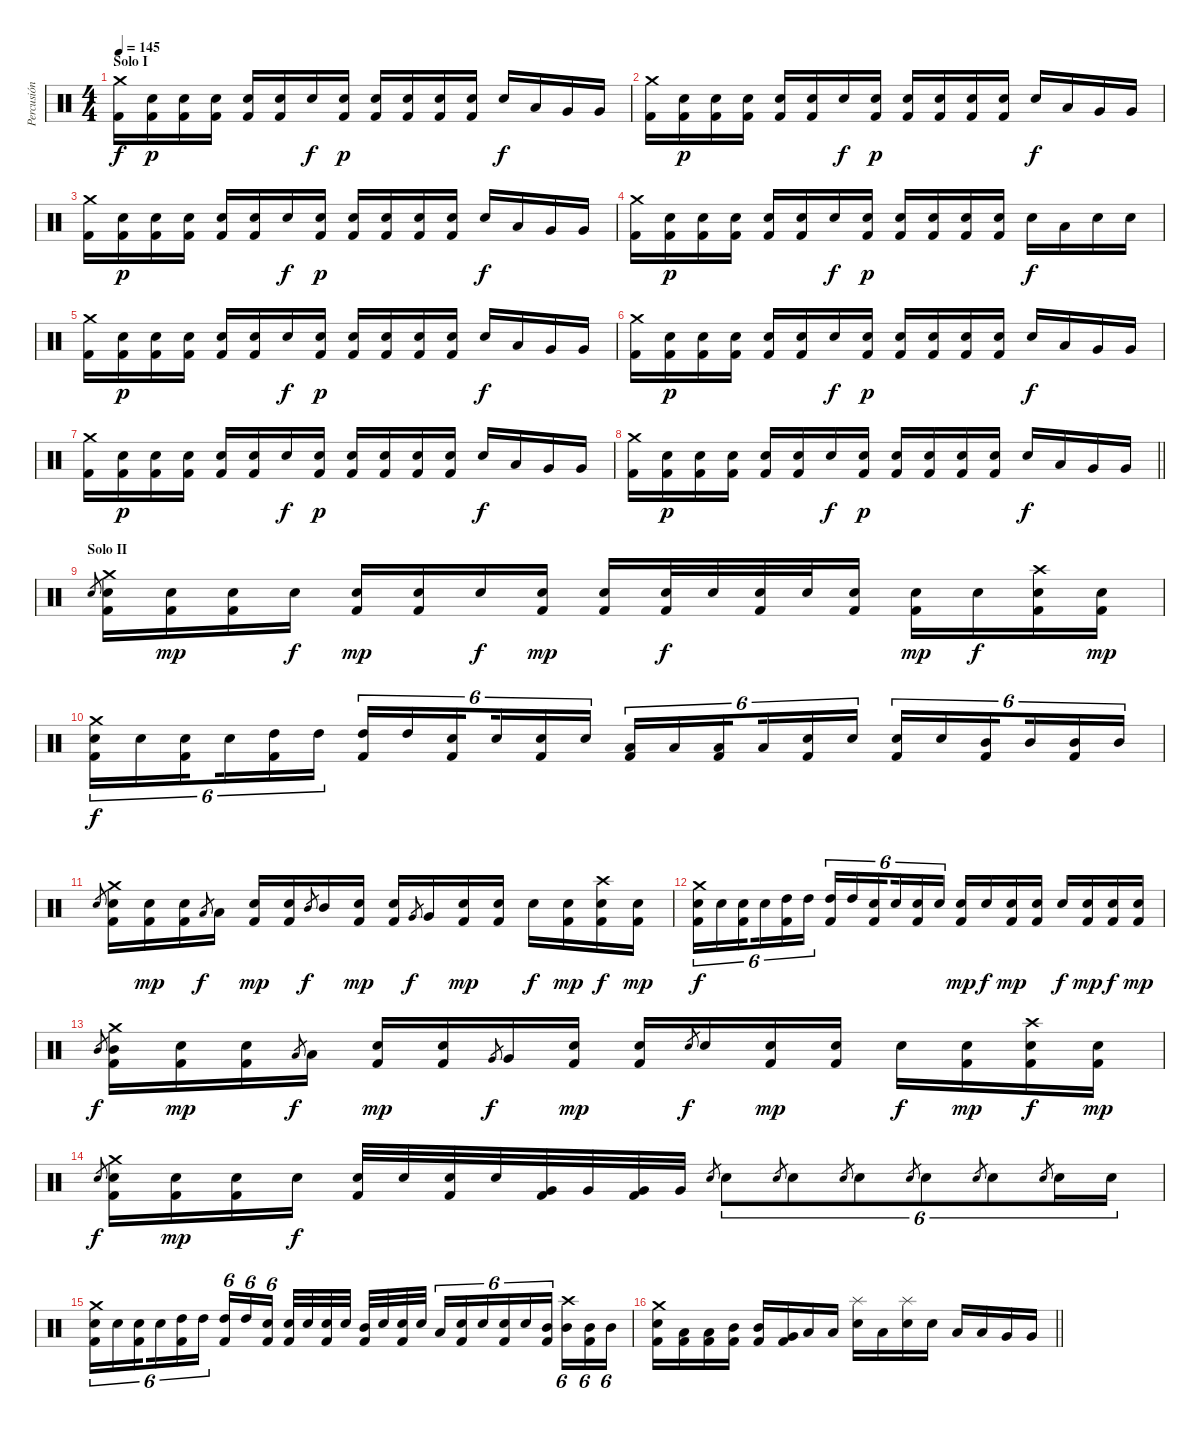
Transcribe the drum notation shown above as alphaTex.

\track ("Percusión" "Percusión") {instrument percussion}
\staff {score}
\articulation defaults
\ts (4 4)
\section ("" "Solo I")
\tempo 145
\clef neutral
\ks c
("Crash medium (hit)" "Kick (hit) 2").16{dy f} ("Electric Snare (hit)" "Kick (hit) 2").16{dy p} ("Electric Snare (hit)" "Kick (hit) 2").16 ("Electric Snare (hit)" "Kick (hit) 2").16 ("Electric Snare (hit)" "Kick (hit) 2").16 ("Electric Snare (hit)" "Kick (hit) 2").16 "Electric Snare (hit)".16{dy f} ("Electric Snare (hit)" "Kick (hit) 2").16{dy p} ("Electric Snare (hit)" "Kick (hit) 2").16 ("Electric Snare (hit)" "Kick (hit) 2").16 ("Electric Snare (hit)" "Kick (hit) 2").16 ("Electric Snare (hit)" "Kick (hit) 2").16 "Electric Snare (hit)".16{dy f} "Low Tom (hit)".16 "Very Low Tom (hit)".16 "Very Low Tom (hit)".16 |
("Crash medium (hit)" "Kick (hit) 2").16 ("Electric Snare (hit)" "Kick (hit) 2").16{dy p} ("Electric Snare (hit)" "Kick (hit) 2").16 ("Electric Snare (hit)" "Kick (hit) 2").16 ("Electric Snare (hit)" "Kick (hit) 2").16 ("Electric Snare (hit)" "Kick (hit) 2").16 "Electric Snare (hit)".16{dy f} ("Electric Snare (hit)" "Kick (hit) 2").16{dy p} ("Electric Snare (hit)" "Kick (hit) 2").16 ("Electric Snare (hit)" "Kick (hit) 2").16 ("Electric Snare (hit)" "Kick (hit) 2").16 ("Electric Snare (hit)" "Kick (hit) 2").16 "Electric Snare (hit)".16{dy f} "Low Tom (hit)".16 "Very Low Tom (hit)".16 "Very Low Tom (hit)".16 |
("Crash medium (hit)" "Kick (hit) 2").16 ("Electric Snare (hit)" "Kick (hit) 2").16{dy p} ("Electric Snare (hit)" "Kick (hit) 2").16 ("Electric Snare (hit)" "Kick (hit) 2").16 ("Electric Snare (hit)" "Kick (hit) 2").16 ("Electric Snare (hit)" "Kick (hit) 2").16 "Electric Snare (hit)".16{dy f} ("Electric Snare (hit)" "Kick (hit) 2").16{dy p} ("Electric Snare (hit)" "Kick (hit) 2").16 ("Electric Snare (hit)" "Kick (hit) 2").16 ("Electric Snare (hit)" "Kick (hit) 2").16 ("Electric Snare (hit)" "Kick (hit) 2").16 "Electric Snare (hit)".16{dy f} "Low Tom (hit)".16 "Very Low Tom (hit)".16 "Very Low Tom (hit)".16 |
("Crash medium (hit)" "Kick (hit) 2").16 ("Electric Snare (hit)" "Kick (hit) 2").16{dy p} ("Electric Snare (hit)" "Kick (hit) 2").16 ("Electric Snare (hit)" "Kick (hit) 2").16 ("Electric Snare (hit)" "Kick (hit) 2").16 ("Electric Snare (hit)" "Kick (hit) 2").16 "Electric Snare (hit)".16{dy f} ("Electric Snare (hit)" "Kick (hit) 2").16{dy p} ("Electric Snare (hit)" "Kick (hit) 2").16 ("Electric Snare (hit)" "Kick (hit) 2").16 ("Electric Snare (hit)" "Kick (hit) 2").16 ("Electric Snare (hit)" "Kick (hit) 2").16 "Electric Snare (hit)".16{dy f} "Low Tom (hit)".16 "Electric Snare (hit)".16 "Electric Snare (hit)".16 |
("Crash medium (hit)" "Kick (hit) 2").16 ("Electric Snare (hit)" "Kick (hit) 2").16{dy p} ("Electric Snare (hit)" "Kick (hit) 2").16 ("Electric Snare (hit)" "Kick (hit) 2").16 ("Electric Snare (hit)" "Kick (hit) 2").16 ("Electric Snare (hit)" "Kick (hit) 2").16 "Electric Snare (hit)".16{dy f} ("Electric Snare (hit)" "Kick (hit) 2").16{dy p} ("Electric Snare (hit)" "Kick (hit) 2").16 ("Electric Snare (hit)" "Kick (hit) 2").16 ("Electric Snare (hit)" "Kick (hit) 2").16 ("Electric Snare (hit)" "Kick (hit) 2").16 "Electric Snare (hit)".16{dy f} "Low Tom (hit)".16 "Very Low Tom (hit)".16 "Very Low Tom (hit)".16 |
("Crash medium (hit)" "Kick (hit) 2").16 ("Electric Snare (hit)" "Kick (hit) 2").16{dy p} ("Electric Snare (hit)" "Kick (hit) 2").16 ("Electric Snare (hit)" "Kick (hit) 2").16 ("Electric Snare (hit)" "Kick (hit) 2").16 ("Electric Snare (hit)" "Kick (hit) 2").16 "Electric Snare (hit)".16{dy f} ("Electric Snare (hit)" "Kick (hit) 2").16{dy p} ("Electric Snare (hit)" "Kick (hit) 2").16 ("Electric Snare (hit)" "Kick (hit) 2").16 ("Electric Snare (hit)" "Kick (hit) 2").16 ("Electric Snare (hit)" "Kick (hit) 2").16 "Electric Snare (hit)".16{dy f} "Low Tom (hit)".16 "Very Low Tom (hit)".16 "Very Low Tom (hit)".16 |
("Crash medium (hit)" "Kick (hit) 2").16 ("Electric Snare (hit)" "Kick (hit) 2").16{dy p} ("Electric Snare (hit)" "Kick (hit) 2").16 ("Electric Snare (hit)" "Kick (hit) 2").16 ("Electric Snare (hit)" "Kick (hit) 2").16 ("Electric Snare (hit)" "Kick (hit) 2").16 "Electric Snare (hit)".16{dy f} ("Electric Snare (hit)" "Kick (hit) 2").16{dy p} ("Electric Snare (hit)" "Kick (hit) 2").16 ("Electric Snare (hit)" "Kick (hit) 2").16 ("Electric Snare (hit)" "Kick (hit) 2").16 ("Electric Snare (hit)" "Kick (hit) 2").16 "Electric Snare (hit)".16{dy f} "Low Tom (hit)".16 "Very Low Tom (hit)".16 "Very Low Tom (hit)".16 |
\barLineRight lightlight
("Crash medium (hit)" "Kick (hit) 2").16 ("Electric Snare (hit)" "Kick (hit) 2").16{dy p} ("Electric Snare (hit)" "Kick (hit) 2").16 ("Electric Snare (hit)" "Kick (hit) 2").16 ("Electric Snare (hit)" "Kick (hit) 2").16 ("Electric Snare (hit)" "Kick (hit) 2").16 "Electric Snare (hit)".16{dy f} ("Electric Snare (hit)" "Kick (hit) 2").16{dy p} ("Electric Snare (hit)" "Kick (hit) 2").16 ("Electric Snare (hit)" "Kick (hit) 2").16 ("Electric Snare (hit)" "Kick (hit) 2").16 ("Electric Snare (hit)" "Kick (hit) 2").16 "Electric Snare (hit)".16{dy f} "Low Tom (hit)".16 "Very Low Tom (hit)".16 "Very Low Tom (hit)".16 |
\section ("" "Solo II")
"Electric Snare (hit)".8{gr} ("Crash medium (hit)" "Electric Snare (hit)" "Kick (hit) 2").16 ("Electric Snare (hit)" "Kick (hit) 2").16{dy mp} ("Electric Snare (hit)" "Kick (hit) 2").16 "Electric Snare (hit)".16{dy f} ("Electric Snare (hit)" "Kick (hit) 2").16{dy mp} ("Electric Snare (hit)" "Kick (hit) 2").16 "Electric Snare (hit)".16{dy f} ("Electric Snare (hit)" "Kick (hit) 2").16{dy mp} ("Electric Snare (hit)" "Kick (hit) 2").16 ("Electric Snare (hit)" "Kick (hit) 2").32{dy f} "Electric Snare (hit)".32 ("Electric Snare (hit)" "Kick (hit) 2").32 "Electric Snare (hit)".32 ("Electric Snare (hit)" "Kick (hit) 2").16 ("Electric Snare (hit)" "Kick (hit) 2").16{dy mp} "Electric Snare (hit)".16{dy f} ("Crash high (hit)" "Electric Snare (hit)" "Kick (hit) 2").16 ("Electric Snare (hit)" "Kick (hit) 2").16{dy mp} |
("Crash medium (hit)" "Electric Snare (hit)" "Kick (hit) 2").16{tu (6 4) dy f} "Electric Snare (hit)".16{tu (6 4)} ("Electric Snare (hit)" "Kick (hit) 2").16{tu (6 4) beam splitsecondary} "Electric Snare (hit)".16{tu (6 4)} ("High Tom (hit)" "Kick (hit) 2").16{tu (6 4)} "High Tom (hit)".16{tu (6 4)} ("High Tom (hit)" "Kick (hit) 2").16{tu (6 4)} "High Tom (hit)".16{tu (6 4)} ("Electric Snare (hit)" "Kick (hit) 2").16{tu (6 4) beam splitsecondary} "Electric Snare (hit)".16{tu (6 4)} ("Electric Snare (hit)" "Kick (hit) 2").16{tu (6 4)} "Electric Snare (hit)".16{tu (6 4)} ("Low Tom (hit)" "Kick (hit) 2").16{tu (6 4)} "Low Tom (hit)".16{tu (6 4)} ("Low Tom (hit)" "Kick (hit) 2").16{tu (6 4) beam splitsecondary} "Low Tom (hit)".16{tu (6 4)} ("Electric Snare (hit)" "Kick (hit) 2").16{tu (6 4)} "Electric Snare (hit)".16{tu (6 4)} ("Electric Snare (hit)" "Kick (hit) 2").16{tu (6 4)} "Electric Snare (hit)".16{tu (6 4)} ("Mid Tom (hit)" "Kick (hit) 2").16{tu (6 4) beam splitsecondary} "Mid Tom (hit)".16{tu (6 4)} ("Mid Tom (hit)" "Kick (hit) 2").16{tu (6 4)} "Mid Tom (hit)".16{tu (6 4)} |
"Electric Snare (hit)".8{gr} ("Crash medium (hit)" "Electric Snare (hit)" "Kick (hit) 2").16 ("Electric Snare (hit)" "Kick (hit) 2").16{dy mp} ("Electric Snare (hit)" "Kick (hit) 2").16 "Low Tom (hit)".8{gr dy f} "Low Tom (hit)".16 ("Electric Snare (hit)" "Kick (hit) 2").16{dy mp} ("Electric Snare (hit)" "Kick (hit) 2").16 "Mid Tom (hit)".8{gr dy f} "Mid Tom (hit)".16 ("Electric Snare (hit)" "Kick (hit) 2").16{dy mp} ("Electric Snare (hit)" "Kick (hit) 2").16 "Very Low Tom (hit)".8{gr dy f} "Very Low Tom (hit)".16 ("Electric Snare (hit)" "Kick (hit) 2").16{dy mp} ("Electric Snare (hit)" "Kick (hit) 2").16 "Electric Snare (hit)".16{dy f} ("Electric Snare (hit)" "Kick (hit) 2").16{dy mp} ("Crash high (hit)" "Electric Snare (hit)" "Kick (hit) 2").16{dy f} ("Electric Snare (hit)" "Kick (hit) 2").16{dy mp} |
("Crash medium (hit)" "Electric Snare (hit)" "Kick (hit) 2").16{tu (6 4) dy f} "Electric Snare (hit)".16{tu (6 4)} ("Electric Snare (hit)" "Kick (hit) 2").16{tu (6 4) beam splitsecondary} "Electric Snare (hit)".16{tu (6 4)} ("High Tom (hit)" "Kick (hit) 2").16{tu (6 4)} "High Tom (hit)".16{tu (6 4)} ("High Tom (hit)" "Kick (hit) 2").16{tu (6 4)} "High Tom (hit)".16{tu (6 4)} ("Electric Snare (hit)" "Kick (hit) 2").16{tu (6 4) beam splitsecondary} "Electric Snare (hit)".16{tu (6 4)} ("Electric Snare (hit)" "Kick (hit) 2").16{tu (6 4)} "Electric Snare (hit)".16{tu (6 4)} ("Electric Snare (hit)" "Kick (hit) 2").16{dy mp} "Electric Snare (hit)".16{dy f} ("Electric Snare (hit)" "Kick (hit) 2").16{dy mp} ("Electric Snare (hit)" "Kick (hit) 2").16 "Electric Snare (hit)".16{dy f} ("Electric Snare (hit)" "Kick (hit) 2").16{dy mp} ("Electric Snare (hit)" "Kick (hit) 2").16{dy f} ("Electric Snare (hit)" "Kick (hit) 2").16{dy mp} |
"Mid Tom (hit)".8{gr dy f} ("Crash medium (hit)" "Mid Tom (hit)" "Kick (hit) 2").16 ("Electric Snare (hit)" "Kick (hit) 2").16{dy mp} ("Electric Snare (hit)" "Kick (hit) 2").16 "Low Tom (hit)".8{gr dy f} "Low Tom (hit)".16 ("Electric Snare (hit)" "Kick (hit) 2").16{dy mp} ("Electric Snare (hit)" "Kick (hit) 2").16 "Very Low Tom (hit)".8{gr dy f} "Very Low Tom (hit)".16 ("Electric Snare (hit)" "Kick (hit) 2").16{dy mp} ("Electric Snare (hit)" "Kick (hit) 2").16 "Electric Snare (hit)".8{gr dy f} "Electric Snare (hit)".16 ("Electric Snare (hit)" "Kick (hit) 2").16{dy mp} ("Electric Snare (hit)" "Kick (hit) 2").16 "Electric Snare (hit)".16{dy f} ("Electric Snare (hit)" "Kick (hit) 2").16{dy mp} ("Crash high (hit)" "Electric Snare (hit)" "Kick (hit) 2").16{dy f} ("Electric Snare (hit)" "Kick (hit) 2").16{dy mp} |
"Electric Snare (hit)".8{gr dy f} ("Crash medium (hit)" "Electric Snare (hit)" "Kick (hit) 2").16 ("Electric Snare (hit)" "Kick (hit) 2").16{dy mp} ("Electric Snare (hit)" "Kick (hit) 2").16 "Electric Snare (hit)".16{dy f} ("Electric Snare (hit)" "Kick (hit) 2").32 "Electric Snare (hit)".32 ("Electric Snare (hit)" "Kick (hit) 2").32 "Electric Snare (hit)".32 ("Very Low Tom (hit)" "Kick (hit) 2").32 "Very Low Tom (hit)".32 ("Very Low Tom (hit)" "Kick (hit) 2").32 "Very Low Tom (hit)".32 "Electric Snare (hit)".8{gr} "Electric Snare (hit)".8{tu (6 4)} "Electric Snare (hit)".8{gr} "Electric Snare (hit)".8{tu (6 4)} "Electric Snare (hit)".8{gr} "Electric Snare (hit)".8{tu (6 4)} "Electric Snare (hit)".8{gr} "Electric Snare (hit)".8{tu (6 4)} "Electric Snare (hit)".8{gr} "Electric Snare (hit)".8{tu (6 4)} "Electric Snare (hit)".8{gr} "Electric Snare (hit)".16{tu (6 4)} "Electric Snare (hit)".16{tu (6 4)} |
("Crash medium (hit)" "Electric Snare (hit)" "Kick (hit) 2").16{tu (6 4)} "Electric Snare (hit)".16{tu (6 4)} ("Electric Snare (hit)" "Kick (hit) 2").16{tu (6 4) beam splitsecondary} "Electric Snare (hit)".16{tu (6 4)} ("High Tom (hit)" "Kick (hit) 2").16{tu (6 4)} "High Tom (hit)".16{tu (6 4)} ("High Tom (hit)" "Kick (hit) 2").16{tu (6 4)} "High Tom (hit)".16{tu (6 4)} ("Electric Snare (hit)" "Kick (hit) 2").16{tu (6 4) beam splitsecondary} ("Electric Snare (hit)" "Kick (hit) 2").32 "Electric Snare (hit)".32 ("Electric Snare (hit)" "Kick (hit) 2").32 "Electric Snare (hit)".32 ("Mid Tom (hit)" "Kick (hit) 2").32 "Electric Snare (hit)".32 ("Electric Snare (hit)" "Kick (hit) 2").32 "Electric Snare (hit)".32{beam splitsecondary} "Low Tom (hit)".16{tu (6 4)} ("Electric Snare (hit)" "Kick (hit) 2").16{tu (6 4)} "Electric Snare (hit)".16{tu (6 4)} ("Electric Snare (hit)" "Kick (hit) 2").16{tu (6 4)} "Electric Snare (hit)".16{tu (6 4)} ("Mid Tom (hit)" "Kick (hit) 2").16{tu (6 4) beam splitsecondary} ("Crash high (hit)" "Mid Tom (hit)").16{tu (6 4)} ("Mid Tom (hit)" "Kick (hit) 2").16{tu (6 4)} "Mid Tom (hit)".16{tu (6 4)} |
\barLineRight lightlight
("Crash medium (hit)" "Electric Snare (hit)" "Kick (hit) 2").16 ("Low Tom (hit)" "Kick (hit) 2").16 ("Low Tom (hit)" "Kick (hit) 2").16 ("Mid Tom (hit)" "Kick (hit) 2").16 ("Mid Tom (hit)" "Kick (hit) 2").16 ("Very Low Tom (hit)" "Kick (hit) 2").16 "Low Tom (hit)".16 "Low Tom (hit)".16 ("Splash (hit)" "Electric Snare (hit)").16 "Low Tom (hit)".16 ("Splash (hit)" "Electric Snare (hit)").16 "Electric Snare (hit)".16 "Low Tom (hit)".16 "Low Tom (hit)".16 "Very Low Tom (hit)".16 "Very Low Tom (hit)".16
